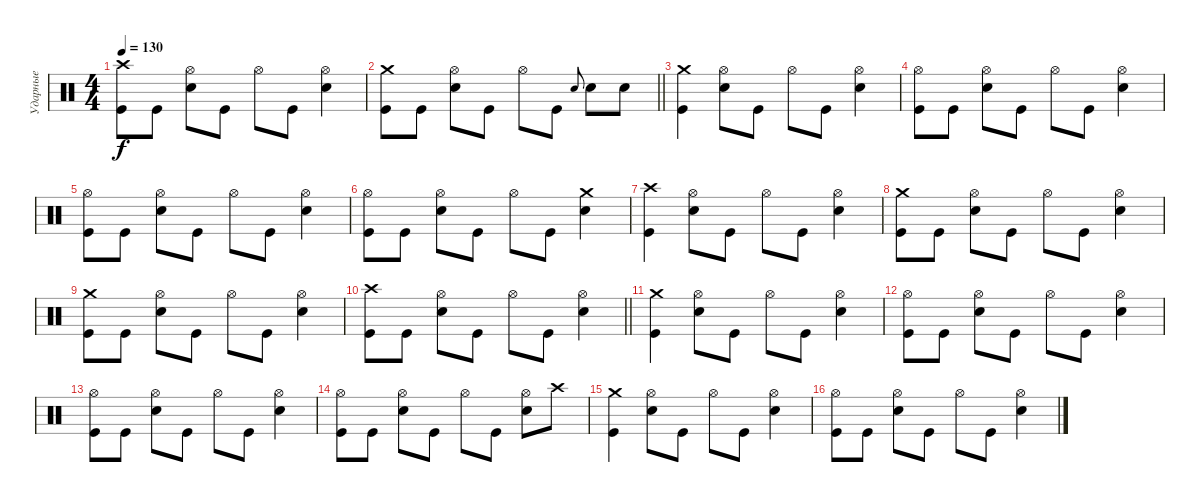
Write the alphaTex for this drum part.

\track ("Ударные" "Ударные") {instrument percussion}
\staff {score}
\articulation defaults
\ts (4 4)
\tempo 130
\clef neutral
\ks c
("Crash high (hit)" "Kick (hit)").8{dy f} "Kick (hit)".8 ("Hi-Hat (open)" "Electric Snare (hit)").8 "Kick (hit)".8 "Hi-Hat (open)".8 "Kick (hit)".8 ("Hi-Hat (open)" "Electric Snare (hit)").4 |
\barLineRight lightlight
("Crash medium (hit)" "Kick (hit)").8 "Kick (hit)".8 ("Hi-Hat (open)" "Electric Snare (hit)").8 "Kick (hit)".8 "Hi-Hat (open)".8 "Kick (hit)".8 "Electric Snare (hit)".8{gr onbeat} "Electric Snare (hit)".8 "Electric Snare (hit)".8 |
\section ("" " ")
("Crash medium (hit)" "Kick (hit)").4 ("Hi-Hat (open)" "Electric Snare (hit)").8 "Kick (hit)".8 "Hi-Hat (open)".8 "Kick (hit)".8 ("Hi-Hat (open)" "Electric Snare (hit)").4 |
("Hi-Hat (open)" "Kick (hit)").8 "Kick (hit)".8 ("Hi-Hat (open)" "Electric Snare (hit)").8 "Kick (hit)".8 "Hi-Hat (open)".8 "Kick (hit)".8 ("Hi-Hat (open)" "Electric Snare (hit)").4 |
("Hi-Hat (open)" "Kick (hit)").8 "Kick (hit)".8 ("Hi-Hat (open)" "Electric Snare (hit)").8 "Kick (hit)".8 "Hi-Hat (open)".8 "Kick (hit)".8 ("Hi-Hat (open)" "Electric Snare (hit)").4 |
("Hi-Hat (open)" "Kick (hit)").8 "Kick (hit)".8 ("Hi-Hat (open)" "Electric Snare (hit)").8 "Kick (hit)".8 "Hi-Hat (open)".8 "Kick (hit)".8 ("Crash medium (hit)" "Electric Snare (hit)").4 |
("Crash high (hit)" "Kick (hit)").4 ("Hi-Hat (open)" "Electric Snare (hit)").8 "Kick (hit)".8 "Hi-Hat (open)".8 "Kick (hit)".8 ("Hi-Hat (open)" "Electric Snare (hit)").4 |
("Crash medium (hit)" "Kick (hit)").8 "Kick (hit)".8 ("Hi-Hat (open)" "Electric Snare (hit)").8 "Kick (hit)".8 "Hi-Hat (open)".8 "Kick (hit)".8 ("Hi-Hat (open)" "Electric Snare (hit)").4 |
("Crash medium (hit)" "Kick (hit)").8 "Kick (hit)".8 ("Hi-Hat (open)" "Electric Snare (hit)").8 "Kick (hit)".8 "Hi-Hat (open)".8 "Kick (hit)".8 ("Hi-Hat (open)" "Electric Snare (hit)").4 |
\barLineRight lightlight
("Crash high (hit)" "Kick (hit)").8 "Kick (hit)".8 ("Hi-Hat (open)" "Electric Snare (hit)").8 "Kick (hit)".8 "Hi-Hat (open)".8 "Kick (hit)".8 ("Hi-Hat (open)" "Electric Snare (hit)").4 |
\section ("" " ")
("Crash medium (hit)" "Kick (hit)").4 ("Hi-Hat (open)" "Electric Snare (hit)").8 "Kick (hit)".8 "Hi-Hat (open)".8 "Kick (hit)".8 ("Hi-Hat (open)" "Electric Snare (hit)").4 |
("Hi-Hat (open)" "Kick (hit)").8 "Kick (hit)".8 ("Hi-Hat (open)" "Electric Snare (hit)").8 "Kick (hit)".8 "Hi-Hat (open)".8 "Kick (hit)".8 ("Hi-Hat (open)" "Electric Snare (hit)").4 |
("Hi-Hat (open)" "Kick (hit)").8 "Kick (hit)".8 ("Hi-Hat (open)" "Electric Snare (hit)").8 "Kick (hit)".8 "Hi-Hat (open)".8 "Kick (hit)".8 ("Hi-Hat (open)" "Electric Snare (hit)").4 |
("Hi-Hat (open)" "Kick (hit)").8 "Kick (hit)".8 ("Hi-Hat (open)" "Electric Snare (hit)").8 "Kick (hit)".8 "Hi-Hat (open)".8 "Kick (hit)".8 ("Hi-Hat (open)" "Electric Snare (hit)").8 "Crash high (hit)".8 |
("Crash medium (hit)" "Kick (hit)").4 ("Hi-Hat (open)" "Electric Snare (hit)").8 "Kick (hit)".8 "Hi-Hat (open)".8 "Kick (hit)".8 ("Hi-Hat (open)" "Electric Snare (hit)").4 |
("Hi-Hat (open)" "Kick (hit)").8 "Kick (hit)".8 ("Hi-Hat (open)" "Electric Snare (hit)").8 "Kick (hit)".8 "Hi-Hat (open)".8 "Kick (hit)".8 ("Hi-Hat (open)" "Electric Snare (hit)").4
